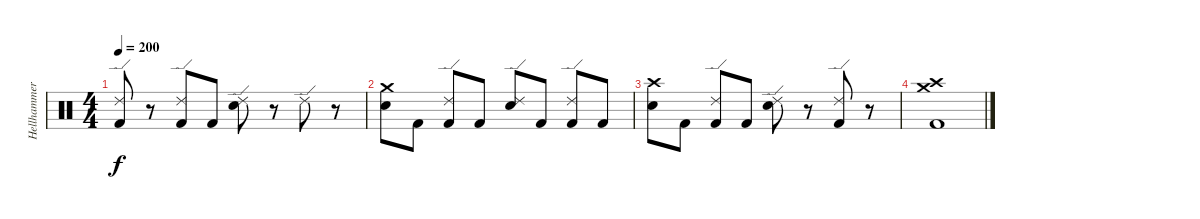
\track ("Hellhammer" "Hellhammer") {instrument percussion}
\staff {score}
\articulation defaults
\ts (4 4)
\tempo 200
\clef neutral
\ks c
("Ride (edge) 2" "Kick (hit) 2").8{dy f} r.8 ("Ride (edge) 2" "Kick (hit) 2").8 "Kick (hit) 2".8 ("Ride (edge) 2" "Electric Snare (hit)").8 r.8 "Ride (edge) 2".8 r.8 |
("Crash medium (hit)" "Electric Snare (hit)").8 "Kick (hit) 2".8 ("Ride (edge) 2" "Kick (hit) 2").8 "Kick (hit) 2".8 ("Ride (edge) 2" "Electric Snare (hit)").8 "Kick (hit) 2".8 ("Ride (edge) 2" "Kick (hit) 2").8 "Kick (hit) 2".8 |
("Crash high (hit)" "Electric Snare (hit)").8 "Kick (hit) 2".8 ("Ride (edge) 2" "Kick (hit) 2").8 "Kick (hit) 2".8 ("Ride (edge) 2" "Electric Snare (hit)").8 r.8 ("Ride (edge) 2" "Kick (hit) 2").8 r.8 |
("Crash high (hit)" "Crash medium (hit)" "Kick (hit) 2").1
